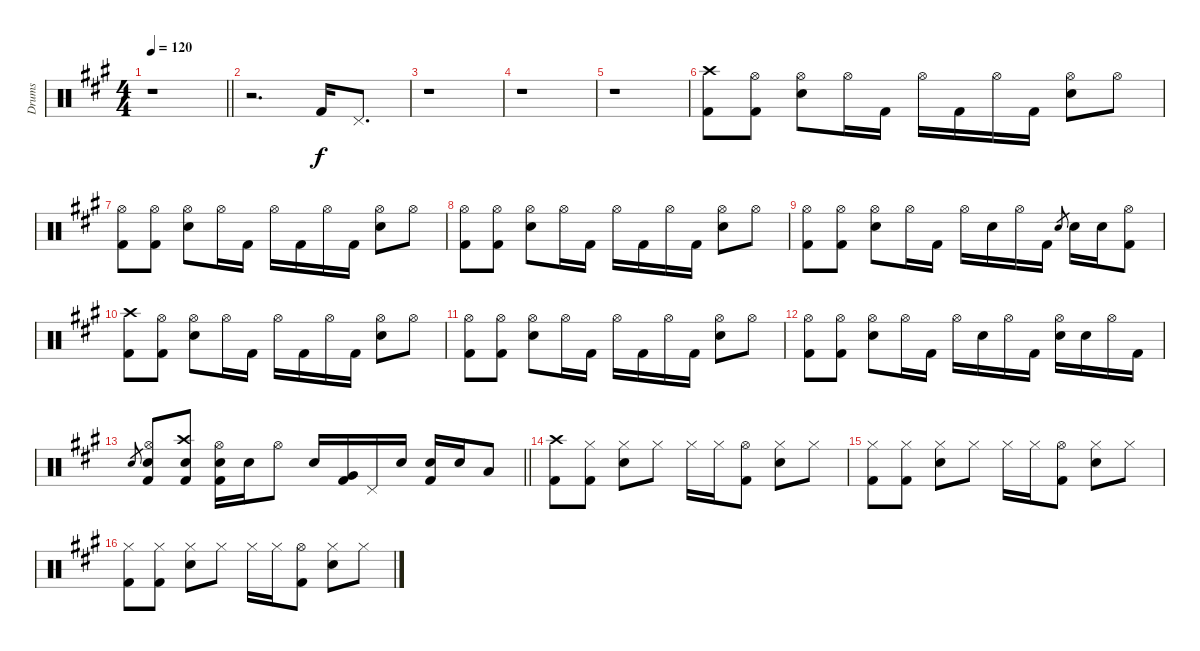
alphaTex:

\track ("Drums" "Drums") {instrument percussion}
\staff {score}
\articulation defaults
\ts (4 4)
\tempo 120
\clef neutral
\barLineRight lightlight
\ks a
r.1{dy f} |
r.2{d} "Kick (hit) 2".16 "Pedal Hi-Hat (hit)".8{d} |
r.1 |
r.1 |
r.1 |
("Crash high (hit)" "Kick (hit) 2").8 ("Hi-Hat (open)" "Kick (hit) 2").8 ("Hi-Hat (open)" "Electric Snare (hit)").8 "Hi-Hat (open)".16 "Kick (hit) 2".16 "Hi-Hat (open)".16 "Kick (hit) 2".16 "Hi-Hat (open)".16 "Kick (hit) 2".16 ("Hi-Hat (open)" "Electric Snare (hit)").8 "Hi-Hat (open)".8 |
("Hi-Hat (open)" "Kick (hit) 2").8 ("Hi-Hat (open)" "Kick (hit) 2").8 ("Hi-Hat (open)" "Electric Snare (hit)").8 "Hi-Hat (open)".16 "Kick (hit) 2".16 "Hi-Hat (open)".16 "Kick (hit) 2".16 "Hi-Hat (open)".16 "Kick (hit) 2".16 ("Hi-Hat (open)" "Electric Snare (hit)").8 "Hi-Hat (open)".8 |
("Hi-Hat (open)" "Kick (hit) 2").8 ("Hi-Hat (open)" "Kick (hit) 2").8 ("Hi-Hat (open)" "Electric Snare (hit)").8 "Hi-Hat (open)".16 "Kick (hit) 2".16 "Hi-Hat (open)".16 "Kick (hit) 2".16 "Hi-Hat (open)".16 "Kick (hit) 2".16 ("Hi-Hat (open)" "Electric Snare (hit)").8 "Hi-Hat (open)".8 |
("Hi-Hat (open)" "Kick (hit) 2").8 ("Hi-Hat (open)" "Kick (hit) 2").8 ("Hi-Hat (open)" "Electric Snare (hit)").8 "Hi-Hat (open)".16 "Kick (hit) 2".16 "Hi-Hat (open)".16 "Electric Snare (hit)".16 "Hi-Hat (open)".16 "Kick (hit) 2".16 "Electric Snare (hit)".8{gr} "Electric Snare (hit)".16 "Electric Snare (hit)".16 ("Hi-Hat (open)" "Kick (hit) 2").8 |
("Crash high (hit)" "Kick (hit) 2").8 ("Hi-Hat (open)" "Kick (hit) 2").8 ("Hi-Hat (open)" "Electric Snare (hit)").8 "Hi-Hat (open)".16 "Kick (hit) 2".16 "Hi-Hat (open)".16 "Kick (hit) 2".16 "Hi-Hat (open)".16 "Kick (hit) 2".16 ("Hi-Hat (open)" "Electric Snare (hit)").8 "Hi-Hat (open)".8 |
("Hi-Hat (open)" "Kick (hit) 2").8 ("Hi-Hat (open)" "Kick (hit) 2").8 ("Hi-Hat (open)" "Electric Snare (hit)").8 "Hi-Hat (open)".16 "Kick (hit) 2".16 "Hi-Hat (open)".16 "Kick (hit) 2".16 "Hi-Hat (open)".16 "Kick (hit) 2".16 ("Hi-Hat (open)" "Electric Snare (hit)").8 "Hi-Hat (open)".8 |
("Hi-Hat (open)" "Kick (hit) 2").8 ("Hi-Hat (open)" "Kick (hit) 2").8 ("Hi-Hat (open)" "Electric Snare (hit)").8 "Hi-Hat (open)".16 "Kick (hit) 2".16 "Hi-Hat (open)".16 "Electric Snare (hit)".16 "Hi-Hat (open)".16 "Kick (hit) 2".16 ("Hi-Hat (open)" "Electric Snare (hit)").16 "Electric Snare (hit)".16 "Hi-Hat (open)".16 "Kick (hit) 2".16 |
\barLineRight lightlight "Electric Snare (hit)".8{gr}
("Hi-Hat (open)" "Electric Snare (hit)" "Kick (hit) 2").8 ("Crash high (hit)" "Electric Snare (hit)" "Kick (hit) 2").8 ("Hi-Hat (open)" "Electric Snare (hit)" "Kick (hit) 2").16 "Electric Snare (hit)".16 "Hi-Hat (open)".8 "Electric Snare (hit)".16 ("Very Low Tom (hit)" "Kick (hit) 2").16 "Pedal Hi-Hat (hit)".16 "Electric Snare (hit)".16 ("Electric Snare (hit)" "Kick (hit) 2").16 "Electric Snare (hit)".16 "Low Floor Tom (hit)".8 |
("Crash high (hit)" "Kick (hit) 2").8 ("Hi-Hat (closed)" "Kick (hit) 2").8 ("Hi-Hat (closed)" "Electric Snare (hit)").8 "Hi-Hat (closed)".8 "Hi-Hat (closed)".16 "Hi-Hat (closed)".16 ("Hi-Hat (open)" "Kick (hit) 2").8 ("Hi-Hat (closed)" "Electric Snare (hit)").8 "Hi-Hat (closed)".8 |
("Hi-Hat (closed)" "Kick (hit) 2").8 ("Hi-Hat (closed)" "Kick (hit) 2").8 ("Hi-Hat (closed)" "Electric Snare (hit)").8 "Hi-Hat (closed)".8 "Hi-Hat (closed)".16 "Hi-Hat (closed)".16 ("Hi-Hat (open)" "Kick (hit) 2").8 ("Hi-Hat (closed)" "Electric Snare (hit)").8 "Hi-Hat (closed)".8 |
("Hi-Hat (closed)" "Kick (hit) 2").8 ("Hi-Hat (closed)" "Kick (hit) 2").8 ("Hi-Hat (closed)" "Electric Snare (hit)").8 "Hi-Hat (closed)".8 "Hi-Hat (closed)".16 "Hi-Hat (closed)".16 ("Hi-Hat (open)" "Kick (hit) 2").8 ("Hi-Hat (closed)" "Electric Snare (hit)").8 "Hi-Hat (closed)".8
